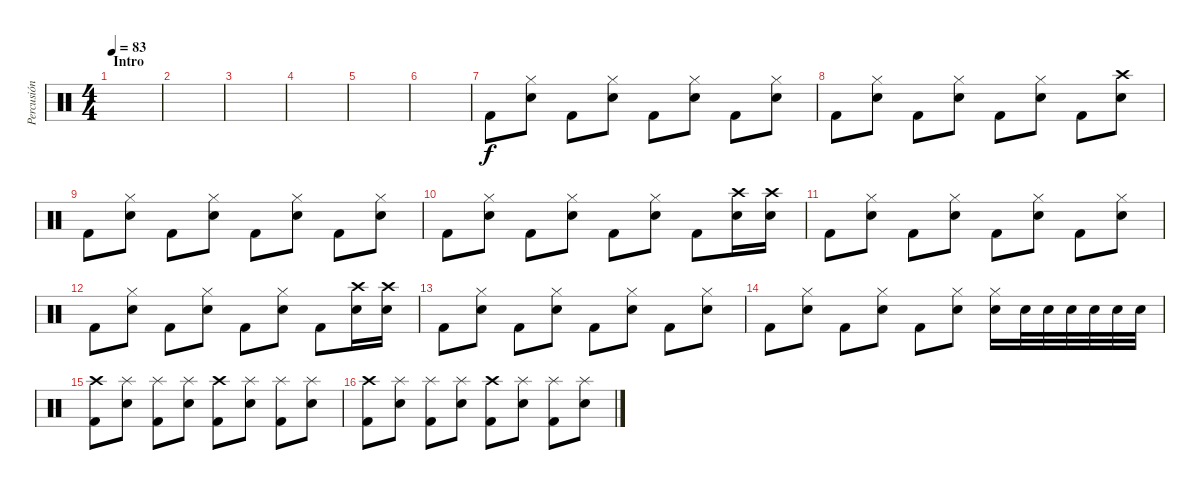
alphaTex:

\track ("Percusión" "Percusión") {instrument percussion}
\staff {score}
\articulation defaults
\ts (4 4)
\section ("" "Intro")
\tempo 83
\clef neutral
\ks c
|
|
|
|
|
|
"Kick (hit) 2".8 ("Snare (hit) 2" "Hi-Hat (closed)").8{dy f} "Kick (hit) 2".8 ("Snare (hit) 2" "Hi-Hat (closed)").8 "Kick (hit) 2".8 ("Snare (hit) 2" "Hi-Hat (closed)").8 "Kick (hit) 2".8 ("Snare (hit) 2" "Hi-Hat (closed)").8 |
"Kick (hit) 2".8 ("Snare (hit) 2" "Hi-Hat (closed)").8 "Kick (hit) 2".8 ("Snare (hit) 2" "Hi-Hat (closed)").8 "Kick (hit) 2".8 ("Snare (hit) 2" "Hi-Hat (closed)").8 "Kick (hit) 2".8 ("Snare (hit) 2" "Crash high (hit)").8 |
"Kick (hit) 2".8 ("Snare (hit) 2" "Hi-Hat (closed)").8 "Kick (hit) 2".8 ("Snare (hit) 2" "Hi-Hat (closed)").8 "Kick (hit) 2".8 ("Snare (hit) 2" "Hi-Hat (closed)").8 "Kick (hit) 2".8 ("Snare (hit) 2" "Hi-Hat (closed)").8 |
"Kick (hit) 2".8 ("Snare (hit) 2" "Hi-Hat (closed)").8 "Kick (hit) 2".8 ("Snare (hit) 2" "Hi-Hat (closed)").8 "Kick (hit) 2".8 ("Snare (hit) 2" "Hi-Hat (closed)").8 "Kick (hit) 2".8 ("Snare (hit) 2" "Crash high (hit)").16 ("Snare (hit) 2" "Crash high (hit)").16 |
"Kick (hit) 2".8 ("Snare (hit) 2" "Hi-Hat (closed)").8 "Kick (hit) 2".8 ("Snare (hit) 2" "Hi-Hat (closed)").8 "Kick (hit) 2".8 ("Snare (hit) 2" "Hi-Hat (closed)").8 "Kick (hit) 2".8 ("Snare (hit) 2" "Hi-Hat (closed)").8 |
"Kick (hit) 2".8 ("Snare (hit) 2" "Hi-Hat (closed)").8 "Kick (hit) 2".8 ("Snare (hit) 2" "Hi-Hat (closed)").8 "Kick (hit) 2".8 ("Snare (hit) 2" "Hi-Hat (closed)").8 "Kick (hit) 2".8 ("Snare (hit) 2" "Crash high (hit)").16 ("Snare (hit) 2" "Crash high (hit)").16 |
"Kick (hit) 2".8 ("Snare (hit) 2" "Hi-Hat (closed)").8 "Kick (hit) 2".8 ("Snare (hit) 2" "Hi-Hat (closed)").8 "Kick (hit) 2".8 ("Snare (hit) 2" "Hi-Hat (closed)").8 "Kick (hit) 2".8 ("Snare (hit) 2" "Hi-Hat (closed)").8 |
"Kick (hit) 2".8 ("Snare (hit) 2" "Hi-Hat (closed)").8 "Kick (hit) 2".8 ("Snare (hit) 2" "Hi-Hat (closed)").8 "Kick (hit) 2".8 ("Snare (hit) 2" "Hi-Hat (closed)").8 ("Snare (hit) 2" "Hi-Hat (closed)").16 "Snare (hit) 2".32 "Snare (hit) 2".32 "Snare (hit) 2".32 "Snare (hit) 2".32 "Snare (hit) 2".32 "Snare (hit) 2".32 |
("Kick (hit) 2" "Crash high (hit)").8 ("Snare (hit) 2" "Splash (hit)").8 ("Kick (hit) 2" "Splash (hit)").8 ("Snare (hit) 2" "Splash (hit)").8 ("Kick (hit) 2" "Crash high (hit)").8 ("Snare (hit) 2" "Splash (hit)").8 ("Kick (hit) 2" "Splash (hit)").8 ("Snare (hit) 2" "Splash (hit)").8 |
("Kick (hit) 2" "Crash high (hit)").8 ("Snare (hit) 2" "Splash (hit)").8 ("Kick (hit) 2" "Splash (hit)").8 ("Snare (hit) 2" "Splash (hit)").8 ("Kick (hit) 2" "Crash high (hit)").8 ("Snare (hit) 2" "Splash (hit)").8 ("Kick (hit) 2" "Splash (hit)").8 ("Snare (hit) 2" "Splash (hit)").8
